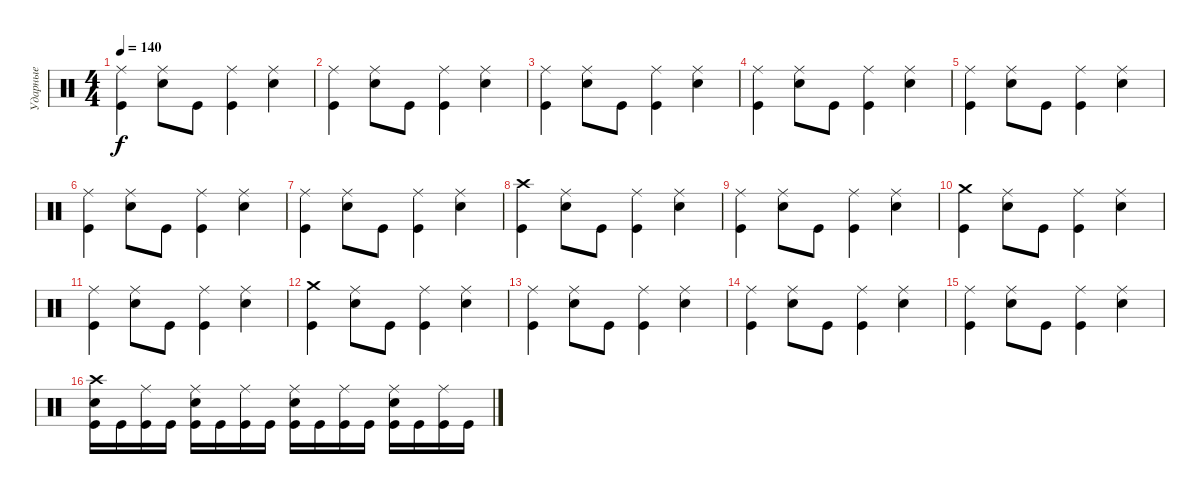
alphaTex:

\track ("Ударные" "Ударные") {instrument percussion}
\staff {score}
\articulation defaults
\ts (4 4)
\tempo 140
\clef neutral
\ks c
("Ride (middle)" "Kick (hit)").4{dy f} ("Ride (middle)" "Electric Snare (hit)").8 "Kick (hit)".8 ("Ride (middle)" "Kick (hit)").4 ("Ride (middle)" "Electric Snare (hit)").4 |
("Ride (middle)" "Kick (hit)").4 ("Ride (middle)" "Electric Snare (hit)").8 "Kick (hit)".8 ("Ride (middle)" "Kick (hit)").4 ("Ride (middle)" "Electric Snare (hit)").4 |
("Ride (middle)" "Kick (hit)").4 ("Ride (middle)" "Electric Snare (hit)").8 "Kick (hit)".8 ("Ride (middle)" "Kick (hit)").4 ("Ride (middle)" "Electric Snare (hit)").4 |
("Ride (middle)" "Kick (hit)").4 ("Ride (middle)" "Electric Snare (hit)").8 "Kick (hit)".8 ("Ride (middle)" "Kick (hit)").4 ("Ride (middle)" "Electric Snare (hit)").4 |
("Ride (middle)" "Kick (hit)").4 ("Ride (middle)" "Electric Snare (hit)").8 "Kick (hit)".8 ("Ride (middle)" "Kick (hit)").4 ("Ride (middle)" "Electric Snare (hit)").4 |
("Ride (middle)" "Kick (hit)").4 ("Ride (middle)" "Electric Snare (hit)").8 "Kick (hit)".8 ("Ride (middle)" "Kick (hit)").4 ("Ride (middle)" "Electric Snare (hit)").4 |
("Ride (middle)" "Kick (hit)").4 ("Ride (middle)" "Electric Snare (hit)").8 "Kick (hit)".8 ("Ride (middle)" "Kick (hit)").4 ("Ride (middle)" "Electric Snare (hit)").4 |
("Kick (hit)" "Crash high (hit)").4 ("Ride (middle)" "Electric Snare (hit)").8 "Kick (hit)".8 ("Ride (middle)" "Kick (hit)").4 ("Ride (middle)" "Electric Snare (hit)").4 |
("Ride (middle)" "Kick (hit)").4 ("Ride (middle)" "Electric Snare (hit)").8 "Kick (hit)".8 ("Ride (middle)" "Kick (hit)").4 ("Ride (middle)" "Electric Snare (hit)").4 |
("Crash medium (hit)" "Kick (hit)").4 ("Ride (middle)" "Electric Snare (hit)").8 "Kick (hit)".8 ("Ride (middle)" "Kick (hit)").4 ("Ride (middle)" "Electric Snare (hit)").4 |
("Ride (middle)" "Kick (hit)").4 ("Ride (middle)" "Electric Snare (hit)").8 "Kick (hit)".8 ("Ride (middle)" "Kick (hit)").4 ("Ride (middle)" "Electric Snare (hit)").4 |
("Crash medium (hit)" "Kick (hit)").4 ("Ride (middle)" "Electric Snare (hit)").8 "Kick (hit)".8 ("Ride (middle)" "Kick (hit)").4 ("Ride (middle)" "Electric Snare (hit)").4 |
("Ride (middle)" "Kick (hit)").4 ("Ride (middle)" "Electric Snare (hit)").8 "Kick (hit)".8 ("Ride (middle)" "Kick (hit)").4 ("Ride (middle)" "Electric Snare (hit)").4 |
("Ride (middle)" "Kick (hit)").4 ("Ride (middle)" "Electric Snare (hit)").8 "Kick (hit)".8 ("Ride (middle)" "Kick (hit)").4 ("Ride (middle)" "Electric Snare (hit)").4 |
("Ride (middle)" "Kick (hit)").4 ("Ride (middle)" "Electric Snare (hit)").8 "Kick (hit)".8 ("Ride (middle)" "Kick (hit)").4 ("Ride (middle)" "Electric Snare (hit)").4 |
("Crash high (hit)" "Electric Snare (hit)" "Kick (hit)").16 "Kick (hit)".16 ("Ride (middle)" "Kick (hit)").16 "Kick (hit)".16 ("Ride (middle)" "Electric Snare (hit)" "Kick (hit)").16 "Kick (hit)".16 ("Ride (middle)" "Kick (hit)").16 "Kick (hit)".16 ("Ride (middle)" "Electric Snare (hit)" "Kick (hit)").16 "Kick (hit)".16 ("Ride (middle)" "Kick (hit)").16 "Kick (hit)".16 ("Ride (middle)" "Electric Snare (hit)" "Kick (hit)").16 "Kick (hit)".16 ("Ride (middle)" "Kick (hit)").16 "Kick (hit)".16
